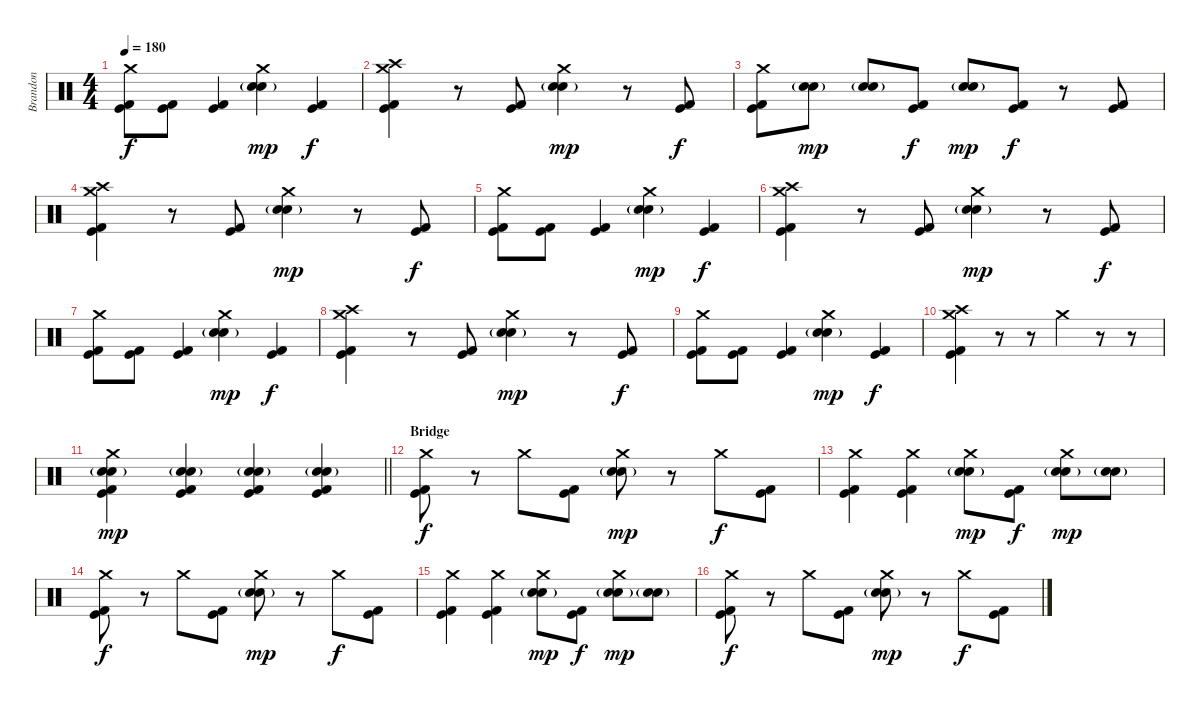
\track ("Brandon" "Brandon") {instrument percussion}
\staff {score}
\articulation defaults
\ts (4 4)
\tempo 180
\clef neutral
\ks c
("Crash medium (hit)" "Kick (hit) 2" "Kick (hit)").8{dy f} ("Kick (hit)" "Kick (hit) 2").8 ("Kick (hit)" "Kick (hit) 2").4 ("Crash medium (hit)" "Snare (hit) 2" "Electric Snare (hit)"{g}).4{dy mp} ("Kick (hit)" "Kick (hit) 2").4{dy f} |
("Crash high (hit)" "Crash medium (hit)" "Kick (hit)" "Kick (hit) 2").4 r.8 ("Kick (hit)" "Kick (hit) 2").8 ("Crash medium (hit)" "Snare (hit) 2" "Electric Snare (hit)"{g}).4{dy mp} r.8 ("Kick (hit)" "Kick (hit) 2").8{dy f} |
("Crash medium (hit)" "Kick (hit) 2" "Kick (hit)").8 ("Snare (hit) 2" "Electric Snare (hit)"{g}).8{dy mp} ("Snare (hit) 2" "Electric Snare (hit)"{g}).8 ("Kick (hit)" "Kick (hit) 2").8{dy f} ("Snare (hit) 2" "Electric Snare (hit)"{g}).8{dy mp} ("Kick (hit)" "Kick (hit) 2").8{dy f} r.8 ("Kick (hit)" "Kick (hit) 2").8 |
("Crash high (hit)" "Crash medium (hit)" "Kick (hit)" "Kick (hit) 2").4 r.8 ("Kick (hit)" "Kick (hit) 2").8 ("Crash medium (hit)" "Snare (hit) 2" "Electric Snare (hit)"{g}).4{dy mp} r.8 ("Kick (hit)" "Kick (hit) 2").8{dy f} |
("Crash medium (hit)" "Kick (hit) 2" "Kick (hit)").8 ("Kick (hit)" "Kick (hit) 2").8 ("Kick (hit)" "Kick (hit) 2").4 ("Crash medium (hit)" "Snare (hit) 2" "Electric Snare (hit)"{g}).4{dy mp} ("Kick (hit)" "Kick (hit) 2").4{dy f} |
("Crash high (hit)" "Crash medium (hit)" "Kick (hit)" "Kick (hit) 2").4 r.8 ("Kick (hit)" "Kick (hit) 2").8 ("Crash medium (hit)" "Snare (hit) 2" "Electric Snare (hit)"{g}).4{dy mp} r.8 ("Kick (hit)" "Kick (hit) 2").8{dy f} |
("Crash medium (hit)" "Kick (hit) 2" "Kick (hit)").8 ("Kick (hit)" "Kick (hit) 2").8 ("Kick (hit)" "Kick (hit) 2").4 ("Crash medium (hit)" "Snare (hit) 2" "Electric Snare (hit)"{g}).4{dy mp} ("Kick (hit)" "Kick (hit) 2").4{dy f} |
("Crash high (hit)" "Crash medium (hit)" "Kick (hit)" "Kick (hit) 2").4 r.8 ("Kick (hit)" "Kick (hit) 2").8 ("Crash medium (hit)" "Snare (hit) 2" "Electric Snare (hit)"{g}).4{dy mp} r.8 ("Kick (hit)" "Kick (hit) 2").8{dy f} |
("Crash medium (hit)" "Kick (hit) 2" "Kick (hit)").8 ("Kick (hit)" "Kick (hit) 2").8 ("Kick (hit)" "Kick (hit) 2").4 ("Crash medium (hit)" "Snare (hit) 2" "Electric Snare (hit)"{g}).4{dy mp} ("Kick (hit)" "Kick (hit) 2").4{dy f} |
("Crash high (hit)" "Crash medium (hit)" "Kick (hit)" "Kick (hit) 2").4 r.8 r.8 "Crash medium (hit)".4 r.8 r.8 |
\barLineRight lightlight
("Crash medium (hit)" "Snare (hit) 2" "Electric Snare (hit)"{g} "Kick (hit)" "Kick (hit) 2").4{dy mp} ("Snare (hit) 2" "Electric Snare (hit)"{g} "Kick (hit)" "Kick (hit) 2").4 ("Snare (hit) 2" "Electric Snare (hit)"{g} "Kick (hit)" "Kick (hit) 2").4 ("Snare (hit) 2" "Electric Snare (hit)"{g} "Kick (hit)" "Kick (hit) 2").4 |
\section ("" "Bridge")
("Crash medium (hit)" "Kick (hit)" "Kick (hit) 2").8{dy f} r.8 "Crash medium (hit)".8 ("Kick (hit)" "Kick (hit) 2").8 ("Crash medium (hit)" "Snare (hit) 2" "Electric Snare (hit)"{g}).8{dy mp} r.8 "Crash medium (hit)".8{dy f} ("Kick (hit)" "Kick (hit) 2").8 |
("Crash medium (hit)" "Kick (hit)" "Kick (hit) 2").4 ("Crash medium (hit)" "Kick (hit)" "Kick (hit) 2").4 ("Crash medium (hit)" "Snare (hit) 2" "Electric Snare (hit)"{g}).8{dy mp} ("Kick (hit)" "Kick (hit) 2").8{dy f} ("Crash medium (hit)" "Snare (hit) 2" "Electric Snare (hit)"{g}).8{dy mp} ("Snare (hit) 2" "Electric Snare (hit)"{g}).8 |
("Crash medium (hit)" "Kick (hit)" "Kick (hit) 2").8{dy f} r.8 "Crash medium (hit)".8 ("Kick (hit)" "Kick (hit) 2").8 ("Crash medium (hit)" "Snare (hit) 2" "Electric Snare (hit)"{g}).8{dy mp} r.8 "Crash medium (hit)".8{dy f} ("Kick (hit)" "Kick (hit) 2").8 |
("Crash medium (hit)" "Kick (hit)" "Kick (hit) 2").4 ("Crash medium (hit)" "Kick (hit)" "Kick (hit) 2").4 ("Crash medium (hit)" "Snare (hit) 2" "Electric Snare (hit)"{g}).8{dy mp} ("Kick (hit)" "Kick (hit) 2").8{dy f} ("Crash medium (hit)" "Snare (hit) 2" "Electric Snare (hit)"{g}).8{dy mp} ("Snare (hit) 2" "Electric Snare (hit)"{g}).8 |
("Crash medium (hit)" "Kick (hit)" "Kick (hit) 2").8{dy f} r.8 "Crash medium (hit)".8 ("Kick (hit)" "Kick (hit) 2").8 ("Crash medium (hit)" "Snare (hit) 2" "Electric Snare (hit)"{g}).8{dy mp} r.8 "Crash medium (hit)".8{dy f} ("Kick (hit)" "Kick (hit) 2").8
